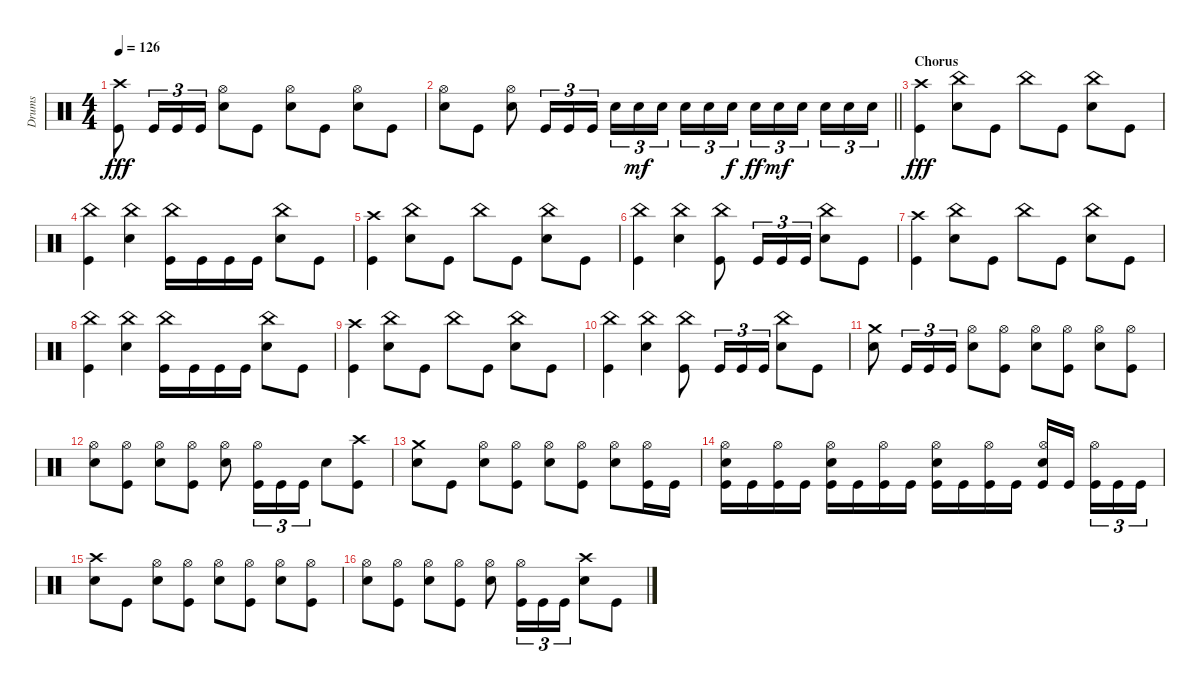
\track ("Drums" "Drums") {instrument percussion}
\staff {score}
\articulation defaults
\ts (4 4)
\tempo 126
\clef neutral
\ks c
("Crash high (hit)" "Kick (hit)").8{dy fff} "Kick (hit)".16{tu (3 2)} "Kick (hit)".16{tu (3 2)} "Kick (hit)".16{tu (3 2)} ("Hi-Hat (open)" "Snare (hit) 2").8 "Kick (hit)".8 ("Hi-Hat (open)" "Snare (hit) 2").8 "Kick (hit)".8 ("Hi-Hat (open)" "Snare (hit) 2").8 "Kick (hit)".8 |
\barLineRight lightlight
("Hi-Hat (open)" "Snare (hit) 2").8 "Kick (hit)".8 ("Hi-Hat (open)" "Snare (hit) 2").8 "Kick (hit)".16{tu (3 2)} "Kick (hit)".16{tu (3 2)} "Kick (hit)".16{tu (3 2)} "Snare (hit) 2".16{tu (3 2)} "Snare (hit) 2".16{tu (3 2) dy mf} "Snare (hit) 2".16{tu (3 2) beam splitsecondary} "Snare (hit) 2".16{tu (3 2)} "Snare (hit) 2".16{tu (3 2)} "Snare (hit) 2".16{tu (3 2) dy f} "Snare (hit) 2".16{tu (3 2) dy ff} "Snare (hit) 2".16{tu (3 2) dy mf} "Snare (hit) 2".16{tu (3 2) beam splitsecondary} "Snare (hit) 2".16{tu (3 2)} "Snare (hit) 2".16{tu (3 2)} "Snare (hit) 2".16{tu (3 2)} |
\section ("" "Chorus")
("Crash high (hit)" "Kick (hit)").4{dy fff} ("China (hit)" "Snare (hit) 2").8 "Kick (hit)".8 "China (hit)".8 "Kick (hit)".8 ("China (hit)" "Snare (hit) 2").8 "Kick (hit)".8 |
("China (hit)" "Kick (hit)").4 ("China (hit)" "Snare (hit) 2").4 ("China (hit)" "Kick (hit)").16 "Kick (hit)".16 "Kick (hit)".16 "Kick (hit)".16 ("China (hit)" "Snare (hit) 2").8 "Kick (hit)".8 |
("Crash high (hit)" "Kick (hit)").4 ("China (hit)" "Snare (hit) 2").8 "Kick (hit)".8 "China (hit)".8 "Kick (hit)".8 ("China (hit)" "Snare (hit) 2").8 "Kick (hit)".8 |
("China (hit)" "Kick (hit)").4 ("China (hit)" "Snare (hit) 2").4 ("China (hit)" "Kick (hit)").8 "Kick (hit)".16{tu (3 2)} "Kick (hit)".16{tu (3 2)} "Kick (hit)".16{tu (3 2)} ("China (hit)" "Snare (hit) 2").8 "Kick (hit)".8 |
("Crash high (hit)" "Kick (hit)").4 ("China (hit)" "Snare (hit) 2").8 "Kick (hit)".8 "China (hit)".8 "Kick (hit)".8 ("China (hit)" "Snare (hit) 2").8 "Kick (hit)".8 |
("China (hit)" "Kick (hit)").4 ("China (hit)" "Snare (hit) 2").4 ("China (hit)" "Kick (hit)").16 "Kick (hit)".16 "Kick (hit)".16 "Kick (hit)".16 ("China (hit)" "Snare (hit) 2").8 "Kick (hit)".8 |
("Crash high (hit)" "Kick (hit)").4 ("China (hit)" "Snare (hit) 2").8 "Kick (hit)".8 "China (hit)".8 "Kick (hit)".8 ("China (hit)" "Snare (hit) 2").8 "Kick (hit)".8 |
("China (hit)" "Kick (hit)").4 ("China (hit)" "Snare (hit) 2").4 ("China (hit)" "Kick (hit)").8 "Kick (hit)".16{tu (3 2)} "Kick (hit)".16{tu (3 2)} "Kick (hit)".16{tu (3 2)} ("China (hit)" "Snare (hit) 2").8 "Kick (hit)".8 |
("Crash medium (hit)" "Snare (hit) 2").8 "Kick (hit)".16{tu (3 2)} "Kick (hit)".16{tu (3 2)} "Kick (hit)".16{tu (3 2)} ("Hi-Hat (open)" "Snare (hit) 2").8 ("Hi-Hat (open)" "Kick (hit)").8 ("Hi-Hat (open)" "Snare (hit) 2").8 ("Hi-Hat (open)" "Kick (hit)").8 ("Hi-Hat (open)" "Snare (hit) 2").8 ("Hi-Hat (open)" "Kick (hit)").8 |
("Hi-Hat (open)" "Snare (hit) 2").8 ("Hi-Hat (open)" "Kick (hit)").8 ("Hi-Hat (open)" "Snare (hit) 2").8 ("Hi-Hat (open)" "Kick (hit)").8 ("Hi-Hat (open)" "Snare (hit) 2").8 ("Hi-Hat (open)" "Kick (hit)").16{tu (3 2)} "Kick (hit)".16{tu (3 2)} "Kick (hit)".16{tu (3 2)} "Snare (hit) 2".8 ("Crash high (hit)" "Kick (hit)").8 |
("Crash medium (hit)" "Snare (hit) 2").8 "Kick (hit)".8 ("Hi-Hat (open)" "Snare (hit) 2").8 ("Hi-Hat (open)" "Kick (hit)").8 ("Hi-Hat (open)" "Snare (hit) 2").8 ("Hi-Hat (open)" "Kick (hit)").8 ("Hi-Hat (open)" "Snare (hit) 2").8 ("Hi-Hat (open)" "Kick (hit)").16 "Kick (hit)".16 |
("Hi-Hat (open)" "Snare (hit) 2" "Kick (hit)").16 "Kick (hit)".16 ("Hi-Hat (open)" "Kick (hit)").16 "Kick (hit)".16 ("Hi-Hat (open)" "Snare (hit) 2" "Kick (hit)").16 "Kick (hit)".16 ("Hi-Hat (open)" "Kick (hit)").16 "Kick (hit)".16 ("Hi-Hat (open)" "Snare (hit) 2" "Kick (hit)").16 "Kick (hit)".16 ("Hi-Hat (open)" "Kick (hit)").16 "Kick (hit)".16 ("Hi-Hat (open)" "Snare (hit) 2" "Kick (hit)").16 "Kick (hit)".16{beam splitsecondary} ("Hi-Hat (open)" "Kick (hit)").16{tu (3 2)} "Kick (hit)".16{tu (3 2)} "Kick (hit)".16{tu (3 2)} |
("Crash high (hit)" "Snare (hit) 2").8 "Kick (hit)".8 ("Hi-Hat (open)" "Snare (hit) 2").8 ("Hi-Hat (open)" "Kick (hit)").8 ("Hi-Hat (open)" "Snare (hit) 2").8 ("Hi-Hat (open)" "Kick (hit)").8 ("Hi-Hat (open)" "Snare (hit) 2").8 ("Hi-Hat (open)" "Kick (hit)").8 |
("Hi-Hat (open)" "Snare (hit) 2").8 ("Hi-Hat (open)" "Kick (hit)").8 ("Hi-Hat (open)" "Snare (hit) 2").8 ("Hi-Hat (open)" "Kick (hit)").8 ("Hi-Hat (open)" "Snare (hit) 2").8 ("Hi-Hat (open)" "Kick (hit)").16{tu (3 2)} "Kick (hit)".16{tu (3 2)} "Kick (hit)".16{tu (3 2)} ("Crash high (hit)" "Snare (hit) 2").8 "Kick (hit)".8
